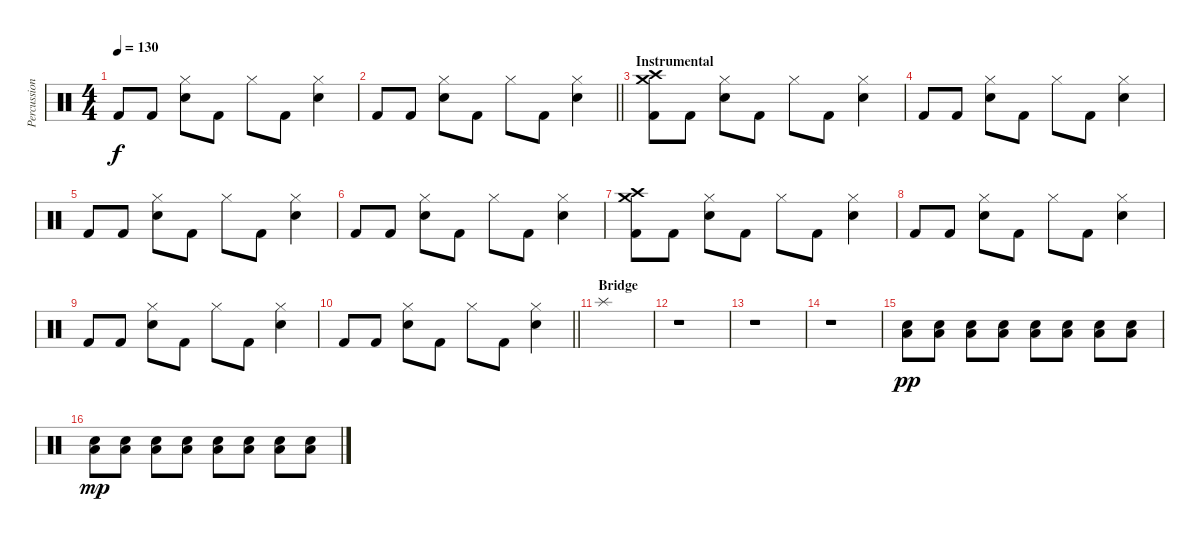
\track ("Percussion" "Percussion") {instrument percussion}
\staff {score}
\articulation defaults
\ts (4 4)
\tempo 130
\clef neutral
\ks c "Kick (hit) 2".8{dy f} "Kick (hit) 2".8
("Hi-Hat (closed)" "Snare (hit) 2").8 "Kick (hit) 2".8 "Hi-Hat (closed)".8 "Kick (hit) 2".8 ("Hi-Hat (closed)" "Snare (hit) 2").4 |
\barLineRight lightlight "Kick (hit) 2".8 "Kick (hit) 2".8
("Hi-Hat (closed)" "Snare (hit) 2").8 "Kick (hit) 2".8 "Hi-Hat (closed)".8 "Kick (hit) 2".8 ("Hi-Hat (closed)" "Snare (hit) 2").4 |
\section ("" "Instrumental")
("Crash high (hit)" "Crash medium (hit)" "Kick (hit) 2").8 "Kick (hit) 2".8 ("Hi-Hat (closed)" "Snare (hit) 2").8 "Kick (hit) 2".8 "Hi-Hat (closed)".8 "Kick (hit) 2".8 ("Hi-Hat (closed)" "Snare (hit) 2").4 |
"Kick (hit) 2".8 "Kick (hit) 2".8 ("Hi-Hat (closed)" "Snare (hit) 2").8 "Kick (hit) 2".8 "Hi-Hat (closed)".8 "Kick (hit) 2".8 ("Hi-Hat (closed)" "Snare (hit) 2").4 |
"Kick (hit) 2".8 "Kick (hit) 2".8 ("Hi-Hat (closed)" "Snare (hit) 2").8 "Kick (hit) 2".8 "Hi-Hat (closed)".8 "Kick (hit) 2".8 ("Hi-Hat (closed)" "Snare (hit) 2").4 |
"Kick (hit) 2".8 "Kick (hit) 2".8 ("Hi-Hat (closed)" "Snare (hit) 2").8 "Kick (hit) 2".8 "Hi-Hat (closed)".8 "Kick (hit) 2".8 ("Hi-Hat (closed)" "Snare (hit) 2").4 |
("Crash high (hit)" "Crash medium (hit)" "Kick (hit) 2").8 "Kick (hit) 2".8 ("Hi-Hat (closed)" "Snare (hit) 2").8 "Kick (hit) 2".8 "Hi-Hat (closed)".8 "Kick (hit) 2".8 ("Hi-Hat (closed)" "Snare (hit) 2").4 |
"Kick (hit) 2".8 "Kick (hit) 2".8 ("Hi-Hat (closed)" "Snare (hit) 2").8 "Kick (hit) 2".8 "Hi-Hat (closed)".8 "Kick (hit) 2".8 ("Hi-Hat (closed)" "Snare (hit) 2").4 |
"Kick (hit) 2".8 "Kick (hit) 2".8 ("Hi-Hat (closed)" "Snare (hit) 2").8 "Kick (hit) 2".8 "Hi-Hat (closed)".8 "Kick (hit) 2".8 ("Hi-Hat (closed)" "Snare (hit) 2").4 |
\barLineRight lightlight "Kick (hit) 2".8 "Kick (hit) 2".8
("Hi-Hat (closed)" "Snare (hit) 2").8 "Kick (hit) 2".8 "Hi-Hat (closed)".8 "Kick (hit) 2".8 ("Hi-Hat (closed)" "Snare (hit) 2").4 |
\section ("" "Bridge")
"Splash (hit)".1 |
r.1 |
r.1 |
r.1 |
("Snare (hit) 2" "Low Floor Tom (hit)").8{dy pp} ("Snare (hit) 2" "Low Floor Tom (hit)").8 ("Snare (hit) 2" "Low Floor Tom (hit)").8 ("Snare (hit) 2" "Low Floor Tom (hit)").8 ("Snare (hit) 2" "Low Floor Tom (hit)").8 ("Snare (hit) 2" "Low Floor Tom (hit)").8 ("Snare (hit) 2" "Low Floor Tom (hit)").8 ("Snare (hit) 2" "Low Floor Tom (hit)").8 |
("Snare (hit) 2" "Low Floor Tom (hit)").8{dy mp} ("Snare (hit) 2" "Low Floor Tom (hit)").8 ("Snare (hit) 2" "Low Floor Tom (hit)").8 ("Snare (hit) 2" "Low Floor Tom (hit)").8 ("Snare (hit) 2" "Low Floor Tom (hit)").8 ("Snare (hit) 2" "Low Floor Tom (hit)").8 ("Snare (hit) 2" "Low Floor Tom (hit)").8 ("Snare (hit) 2" "Low Floor Tom (hit)").8
